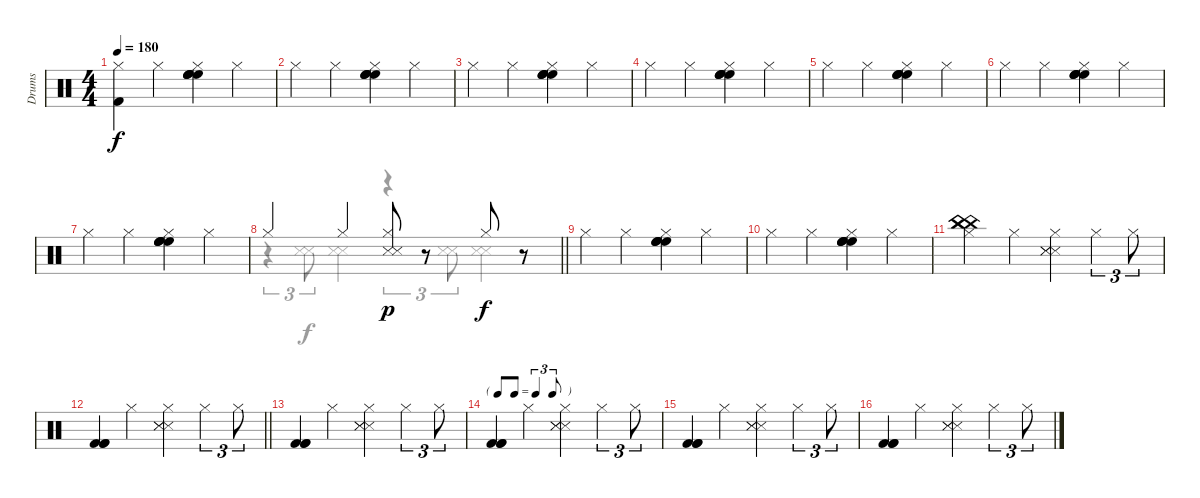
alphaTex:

\track ("Drums" "Drums") {instrument percussion}
\staff {score}
\articulation defaults
\voice
\ts (4 4)
\tempo 180
\clef neutral
\ks c
("Kick (hit) 2" "Hi-Hat (closed)").4{dy f} "Hi-Hat (closed)".4 ("High Floor Tom (hit)" "High Floor Tom (hit)" "High Floor Tom (hit)" "High Floor Tom (hit)" "Hi-Hat (closed)").4 "Hi-Hat (closed)".4 |
"Hi-Hat (closed)".4 "Hi-Hat (closed)".4 ("High Floor Tom (hit)" "High Floor Tom (hit)" "High Floor Tom (hit)" "High Floor Tom (hit)" "Hi-Hat (closed)").4 "Hi-Hat (closed)".4 |
"Hi-Hat (closed)".4 "Hi-Hat (closed)".4 ("High Floor Tom (hit)" "High Floor Tom (hit)" "High Floor Tom (hit)" "High Floor Tom (hit)" "Hi-Hat (closed)").4 "Hi-Hat (closed)".4 |
"Hi-Hat (closed)".4 "Hi-Hat (closed)".4 ("High Floor Tom (hit)" "High Floor Tom (hit)" "High Floor Tom (hit)" "High Floor Tom (hit)" "Hi-Hat (closed)").4 "Hi-Hat (closed)".4 |
"Hi-Hat (closed)".4 "Hi-Hat (closed)".4 ("High Floor Tom (hit)" "High Floor Tom (hit)" "High Floor Tom (hit)" "High Floor Tom (hit)" "Hi-Hat (closed)").4 "Hi-Hat (closed)".4 |
"Hi-Hat (closed)".4 "Hi-Hat (closed)".4 ("High Floor Tom (hit)" "High Floor Tom (hit)" "High Floor Tom (hit)" "High Floor Tom (hit)" "Hi-Hat (closed)").4 "Hi-Hat (closed)".4 |
"Hi-Hat (closed)".4 "Hi-Hat (closed)".4 ("High Floor Tom (hit)" "High Floor Tom (hit)" "High Floor Tom (hit)" "High Floor Tom (hit)" "Hi-Hat (closed)").4 "Hi-Hat (closed)".4 |
\barLineRight lightlight "Hi-Hat (closed)".4 "Hi-Hat (closed)".4
("Snare (side stick) 3" "Snare (side stick) 3" "Hi-Hat (closed)").8{dy p} r.8 "Hi-Hat (closed)".8{dy f} r.8 |
"Hi-Hat (closed)".4 "Hi-Hat (closed)".4 ("High Floor Tom (hit)" "High Floor Tom (hit)" "High Floor Tom (hit)" "High Floor Tom (hit)" "Hi-Hat (closed)").4 "Hi-Hat (closed)".4 |
"Hi-Hat (closed)".4 "Hi-Hat (closed)".4 ("High Floor Tom (hit)" "High Floor Tom (hit)" "High Floor Tom (hit)" "High Floor Tom (hit)" "Hi-Hat (closed)").4 "Hi-Hat (closed)".4 |
("China (hit)" "China (hit)" "China (hit)" "Hi-Hat (closed)").4 "Hi-Hat (closed)".4{volume 8} ("Snare (side stick) 3" "Snare (side stick) 3" "Snare (side stick) 3" "Hi-Hat (closed)").4 "Hi-Hat (closed)".4{tu (3 2)} "Hi-Hat (closed)".8{tu (3 2)} |
\barLineRight lightlight
("Kick (hit) 2" "Kick (hit) 2" "Kick (hit) 2").4 "Hi-Hat (closed)".4 ("Snare (side stick) 3" "Snare (side stick) 3" "Snare (side stick) 3" "Hi-Hat (closed)").4 "Hi-Hat (closed)".4{tu (3 2)} "Hi-Hat (closed)".8{tu (3 2)} |
("Kick (hit) 2" "Kick (hit) 2" "Kick (hit) 2").4 "Hi-Hat (closed)".4 ("Snare (side stick) 3" "Snare (side stick) 3" "Snare (side stick) 3" "Hi-Hat (closed)").4 "Hi-Hat (closed)".4{tu (3 2)} "Hi-Hat (closed)".8{tu (3 2)} |
\tf triplet8th
("Kick (hit) 2" "Kick (hit) 2" "Kick (hit) 2").4 "Hi-Hat (closed)".4 ("Snare (side stick) 3" "Snare (side stick) 3" "Snare (side stick) 3" "Hi-Hat (closed)").4 "Hi-Hat (closed)".4{tu (3 2)} "Hi-Hat (closed)".8{tu (3 2)} |
("Kick (hit) 2" "Kick (hit) 2" "Kick (hit) 2").4 "Hi-Hat (closed)".4 ("Snare (side stick) 3" "Snare (side stick) 3" "Snare (side stick) 3" "Hi-Hat (closed)").4 "Hi-Hat (closed)".4{tu (3 2)} "Hi-Hat (closed)".8{tu (3 2)} |
("Kick (hit) 2" "Kick (hit) 2" "Kick (hit) 2").4 "Hi-Hat (closed)".4 ("Snare (side stick) 3" "Snare (side stick) 3" "Snare (side stick) 3" "Hi-Hat (closed)").4 "Hi-Hat (closed)".4{tu (3 2)} "Hi-Hat (closed)".8{tu (3 2)}
\voice
\clef neutral
\ottava regular
\simile none
\ks c
|
|
|
|
|
|
|
\barLineRight lightlight
r.4{tu (3 2)} ("Snare (side stick) 3" "Snare (side stick) 3").8{tu (3 2)} ("Snare (side stick) 3" "Snare (side stick) 3").4 r.4{tu (3 2)} ("Snare (side stick) 3" "Snare (side stick) 3").8{tu (3 2)} ("Snare (side stick) 3" "Snare (side stick) 3").4 |
|
|
|
\barLineRight lightlight
|
|
|
|
